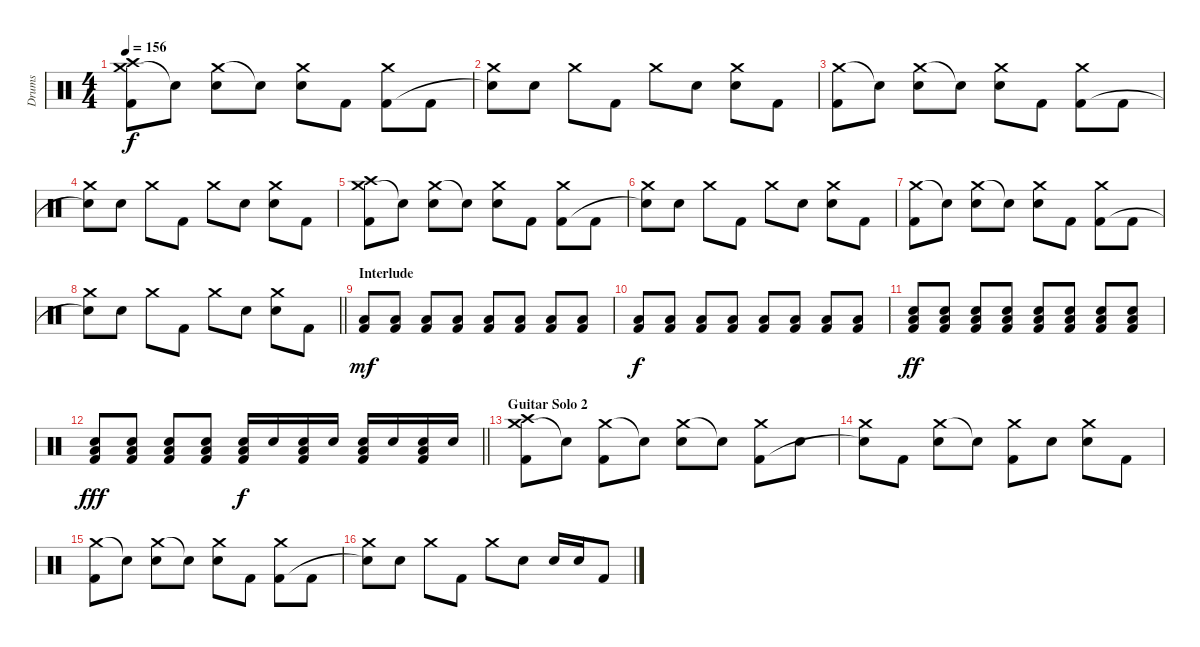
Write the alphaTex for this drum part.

\track ("Drums" "Drums") {instrument percussion}
\staff {score}
\articulation defaults
\ts (4 4)
\tempo 156
\clef neutral
\ks c
("Crash medium (hit)" "Crash high (hit)" "Kick (hit) 2").8{dy f} "Snare (hit)"{t}.8 ("Crash medium (hit)" "Electric Snare (hit)").8 "Snare (hit)"{t}.8 ("Crash medium (hit)" "Electric Snare (hit)").8 "Kick (hit) 2".8 ("Crash medium (hit)" "Kick (hit) 2").8 "Kick (hit) 2".8 |
("Crash medium (hit)" "Snare (hit)"{t}).8 "Electric Snare (hit)".8 "Crash medium (hit)".8 "Kick (hit) 2".8 "Crash medium (hit)".8 "Electric Snare (hit)".8 ("Crash medium (hit)" "Electric Snare (hit)").8 "Kick (hit) 2".8 |
("Crash medium (hit)" "Kick (hit) 2").8 "Snare (hit)"{t}.8 ("Crash medium (hit)" "Electric Snare (hit)").8 "Snare (hit)"{t}.8 ("Crash medium (hit)" "Electric Snare (hit)").8 "Kick (hit) 2".8 ("Crash medium (hit)" "Kick (hit) 2").8 "Kick (hit) 2".8 |
("Crash medium (hit)" "Snare (hit)"{t}).8 "Electric Snare (hit)".8 "Crash medium (hit)".8 "Kick (hit) 2".8 "Crash medium (hit)".8 "Electric Snare (hit)".8 ("Crash medium (hit)" "Electric Snare (hit)").8 "Kick (hit) 2".8 |
("Crash medium (hit)" "Crash high (hit)" "Kick (hit) 2").8 "Snare (hit)"{t}.8 ("Crash medium (hit)" "Electric Snare (hit)").8 "Snare (hit)"{t}.8 ("Crash medium (hit)" "Electric Snare (hit)").8 "Kick (hit) 2".8 ("Crash medium (hit)" "Kick (hit) 2").8 "Kick (hit) 2".8 |
("Crash medium (hit)" "Snare (hit)"{t}).8 "Electric Snare (hit)".8 "Crash medium (hit)".8 "Kick (hit) 2".8 "Crash medium (hit)".8 "Electric Snare (hit)".8 ("Crash medium (hit)" "Electric Snare (hit)").8 "Kick (hit) 2".8 |
("Crash medium (hit)" "Kick (hit) 2").8 "Snare (hit)"{t}.8 ("Crash medium (hit)" "Electric Snare (hit)").8 "Snare (hit)"{t}.8 ("Crash medium (hit)" "Electric Snare (hit)").8 "Kick (hit) 2".8 ("Crash medium (hit)" "Kick (hit) 2").8 "Kick (hit) 2".8 |
\barLineRight lightlight
("Crash medium (hit)" "Snare (hit)"{t}).8 "Electric Snare (hit)".8 "Crash medium (hit)".8 "Kick (hit) 2".8 "Crash medium (hit)".8 "Electric Snare (hit)".8 ("Crash medium (hit)" "Electric Snare (hit)").8 "Kick (hit) 2".8 |
\section ("" "Interlude")
("Low Floor Tom (hit)" "Kick (hit) 2").8{dy mf} ("Low Floor Tom (hit)" "Kick (hit) 2").8 ("Low Floor Tom (hit)" "Kick (hit) 2").8 ("Low Floor Tom (hit)" "Kick (hit) 2").8 ("Low Floor Tom (hit)" "Kick (hit) 2").8 ("Low Floor Tom (hit)" "Kick (hit) 2").8 ("Low Floor Tom (hit)" "Kick (hit) 2").8 ("Low Floor Tom (hit)" "Kick (hit) 2").8 |
("Low Floor Tom (hit)" "Kick (hit) 2").8{dy f} ("Low Floor Tom (hit)" "Kick (hit) 2").8 ("Low Floor Tom (hit)" "Kick (hit) 2").8 ("Low Floor Tom (hit)" "Kick (hit) 2").8 ("Low Floor Tom (hit)" "Kick (hit) 2").8 ("Low Floor Tom (hit)" "Kick (hit) 2").8 ("Low Floor Tom (hit)" "Kick (hit) 2").8 ("Low Floor Tom (hit)" "Kick (hit) 2").8 |
("Electric Snare (hit)" "Low Floor Tom (hit)" "Kick (hit) 2").8{dy ff} ("Electric Snare (hit)" "Low Floor Tom (hit)" "Kick (hit) 2").8 ("Electric Snare (hit)" "Low Floor Tom (hit)" "Kick (hit) 2").8 ("Electric Snare (hit)" "Low Floor Tom (hit)" "Kick (hit) 2").8 ("Electric Snare (hit)" "Low Floor Tom (hit)" "Kick (hit) 2").8 ("Electric Snare (hit)" "Low Floor Tom (hit)" "Kick (hit) 2").8 ("Electric Snare (hit)" "Low Floor Tom (hit)" "Kick (hit) 2").8 ("Electric Snare (hit)" "Low Floor Tom (hit)" "Kick (hit) 2").8 |
\barLineRight lightlight
("Electric Snare (hit)" "Low Floor Tom (hit)" "Kick (hit) 2").8{dy fff} ("Electric Snare (hit)" "Low Floor Tom (hit)" "Kick (hit) 2").8 ("Electric Snare (hit)" "Low Floor Tom (hit)" "Kick (hit) 2").8 ("Electric Snare (hit)" "Low Floor Tom (hit)" "Kick (hit) 2").8 ("Low Floor Tom (hit)" "Electric Snare (hit)" "Kick (hit) 2").16{dy f} "Electric Snare (hit)".16 ("Low Floor Tom (hit)" "Electric Snare (hit)" "Kick (hit) 2").16 "Electric Snare (hit)".16 ("Low Floor Tom (hit)" "Electric Snare (hit)" "Kick (hit) 2").16 "Electric Snare (hit)".16 ("Low Floor Tom (hit)" "Electric Snare (hit)" "Kick (hit) 2").16 "Electric Snare (hit)".16 |
\section ("" "Guitar Solo 2")
("Crash medium (hit)" "Crash high (hit)" "Kick (hit) 2").8 "Snare (hit)"{t}.8 ("Crash medium (hit)" "Kick (hit) 2").8 "Snare (hit)"{t}.8 ("Crash medium (hit)" "Electric Snare (hit)").8 "Snare (hit)"{t}.8 ("Crash medium (hit)" "Kick (hit) 2").8 "Electric Snare (hit)".8 |
("Crash medium (hit)" "Snare (hit)"{t}).8 "Kick (hit) 2".8 ("Crash medium (hit)" "Electric Snare (hit)").8 "Snare (hit)"{t}.8 ("Crash medium (hit)" "Kick (hit) 2").8 "Electric Snare (hit)".8 ("Crash medium (hit)" "Electric Snare (hit)").8 "Kick (hit) 2".8 |
("Crash medium (hit)" "Kick (hit) 2").8 "Snare (hit)"{t}.8 ("Crash medium (hit)" "Electric Snare (hit)").8 "Snare (hit)"{t}.8 ("Crash medium (hit)" "Electric Snare (hit)").8 "Kick (hit) 2".8 ("Crash medium (hit)" "Kick (hit) 2").8 "Kick (hit) 2".8 |
("Crash medium (hit)" "Snare (hit)"{t}).8 "Electric Snare (hit)".8 "Crash medium (hit)".8 "Kick (hit) 2".8 "Crash medium (hit)".8 "Electric Snare (hit)".8 "Electric Snare (hit)".16 "Electric Snare (hit)".16 "Kick (hit) 2".8
